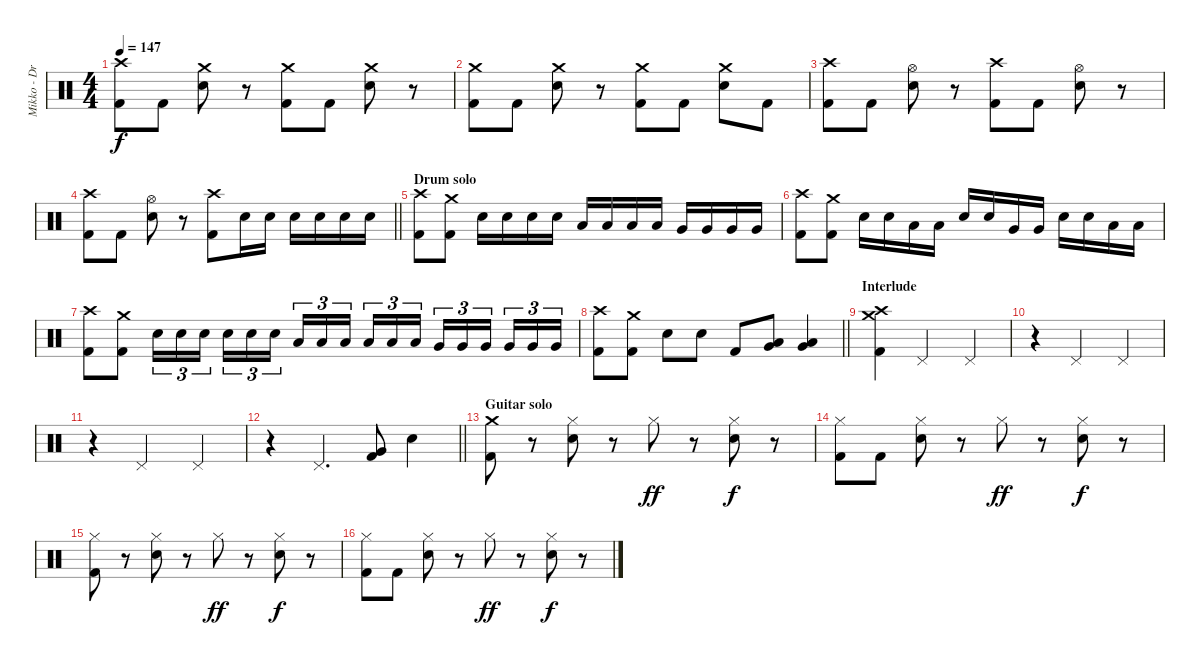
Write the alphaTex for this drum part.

\track ("Mikko - Drums" "Mikko - Dr") {instrument percussion}
\staff {score}
\articulation defaults
\ts (4 4)
\tempo 147
\clef neutral
\ks c
("Crash high (hit)" "Kick (hit) 2").8{dy f} "Kick (hit) 2".8 ("Crash medium (hit)" "Snare (hit) 2").8 r.8 ("Crash medium (hit)" "Kick (hit) 2").8 "Kick (hit) 2".8 ("Crash medium (hit)" "Snare (hit) 2").8 r.8 |
("Crash medium (hit)" "Kick (hit) 2").8 "Kick (hit) 2".8 ("Crash medium (hit)" "Snare (hit) 2").8 r.8 ("Crash medium (hit)" "Kick (hit) 2").8 "Kick (hit) 2".8 ("Crash medium (hit)" "Snare (hit) 2").8 "Kick (hit) 2".8 |
("Crash high (hit)" "Kick (hit) 2").8 "Kick (hit) 2".8 ("Hi-Hat (open)" "Snare (hit) 2").8 r.8 ("Crash high (hit)" "Kick (hit) 2").8 "Kick (hit) 2".8 ("Hi-Hat (open)" "Snare (hit) 2").8 r.8 |
\barLineRight lightlight
("Crash high (hit)" "Kick (hit) 2").8 "Kick (hit) 2".8 ("Hi-Hat (open)" "Snare (hit) 2").8 r.8 ("Crash high (hit)" "Kick (hit) 2").8 "Snare (hit) 2".16 "Snare (hit) 2".16 "Snare (hit) 2".16 "Snare (hit) 2".16 "Snare (hit) 2".16 "Snare (hit) 2".16 |
\section ("" "Drum solo")
("Crash high (hit)" "Kick (hit) 2").8 ("Crash medium (hit)" "Kick (hit) 2").8 "Snare (hit) 2".16 "Snare (hit) 2".16 "Snare (hit) 2".16 "Snare (hit) 2".16 "Low Tom (hit)".16 "Low Tom (hit)".16 "Low Tom (hit)".16 "Low Tom (hit)".16 "Very Low Tom (hit)".16 "Very Low Tom (hit)".16 "Very Low Tom (hit)".16 "Very Low Tom (hit)".16 |
("Crash high (hit)" "Kick (hit) 2").8 ("Crash medium (hit)" "Kick (hit) 2").8 "Snare (hit) 2".16 "Snare (hit) 2".16 "Low Tom (hit)".16 "Low Tom (hit)".16 "Snare (hit) 2".16 "Snare (hit) 2".16 "Very Low Tom (hit)".16 "Very Low Tom (hit)".16 "Snare (hit) 2".16 "Snare (hit) 2".16 "Low Tom (hit)".16 "Low Tom (hit)".16 |
("Crash high (hit)" "Kick (hit) 2").8 ("Crash medium (hit)" "Kick (hit) 2").8 "Snare (hit) 2".16{tu (3 2)} "Snare (hit) 2".16{tu (3 2)} "Snare (hit) 2".16{tu (3 2) beam splitsecondary} "Snare (hit) 2".16{tu (3 2)} "Snare (hit) 2".16{tu (3 2)} "Snare (hit) 2".16{tu (3 2)} "Low Tom (hit)".16{tu (3 2)} "Low Tom (hit)".16{tu (3 2)} "Low Tom (hit)".16{tu (3 2) beam splitsecondary} "Low Tom (hit)".16{tu (3 2)} "Low Tom (hit)".16{tu (3 2)} "Low Tom (hit)".16{tu (3 2)} "Very Low Tom (hit)".16{tu (3 2)} "Very Low Tom (hit)".16{tu (3 2)} "Very Low Tom (hit)".16{tu (3 2) beam splitsecondary} "Very Low Tom (hit)".16{tu (3 2)} "Very Low Tom (hit)".16{tu (3 2)} "Very Low Tom (hit)".16{tu (3 2)} |
\barLineRight lightlight
("Crash high (hit)" "Kick (hit) 2").8 ("Crash medium (hit)" "Kick (hit) 2").8 "Snare (hit) 2".8 "Snare (hit) 2".8 "Kick (hit) 2".8 ("Low Tom (hit)" "Very Low Tom (hit)").8 ("Low Tom (hit)" "Very Low Tom (hit)").4 |
\section ("" "Interlude")
("Crash medium (hit)" "Crash high (hit)" "Kick (hit) 2").4 "Pedal Hi-Hat (hit)".2 "Pedal Hi-Hat (hit)".4 |
r.4 "Pedal Hi-Hat (hit)".2 "Pedal Hi-Hat (hit)".4 |
r.4 "Pedal Hi-Hat (hit)".2 "Pedal Hi-Hat (hit)".4 |
\barLineRight lightlight
r.4 "Pedal Hi-Hat (hit)".4{d} ("Very Low Tom (hit)" "Kick (hit) 2").8 "Snare (hit) 2".4 |
\section ("" "Guitar solo")
("Crash medium (hit)" "Kick (hit) 2").8 r.8 ("Hi-Hat (closed)" "Snare (hit) 2").8 r.8 "Hi-Hat (closed)".8{dy ff} r.8 ("Hi-Hat (closed)" "Snare (hit) 2").8{dy f} r.8 |
("Hi-Hat (closed)" "Kick (hit) 2").8 "Kick (hit) 2".8 ("Hi-Hat (closed)" "Snare (hit) 2").8 r.8 "Hi-Hat (closed)".8{dy ff} r.8 ("Hi-Hat (closed)" "Snare (hit) 2").8{dy f} r.8 |
("Hi-Hat (closed)" "Kick (hit) 2").8 r.8 ("Hi-Hat (closed)" "Snare (hit) 2").8 r.8 "Hi-Hat (closed)".8{dy ff} r.8 ("Hi-Hat (closed)" "Snare (hit) 2").8{dy f} r.8 |
("Hi-Hat (closed)" "Kick (hit) 2").8 "Kick (hit) 2".8 ("Hi-Hat (closed)" "Snare (hit) 2").8 r.8 "Hi-Hat (closed)".8{dy ff} r.8 ("Hi-Hat (closed)" "Snare (hit) 2").8{dy f} r.8
